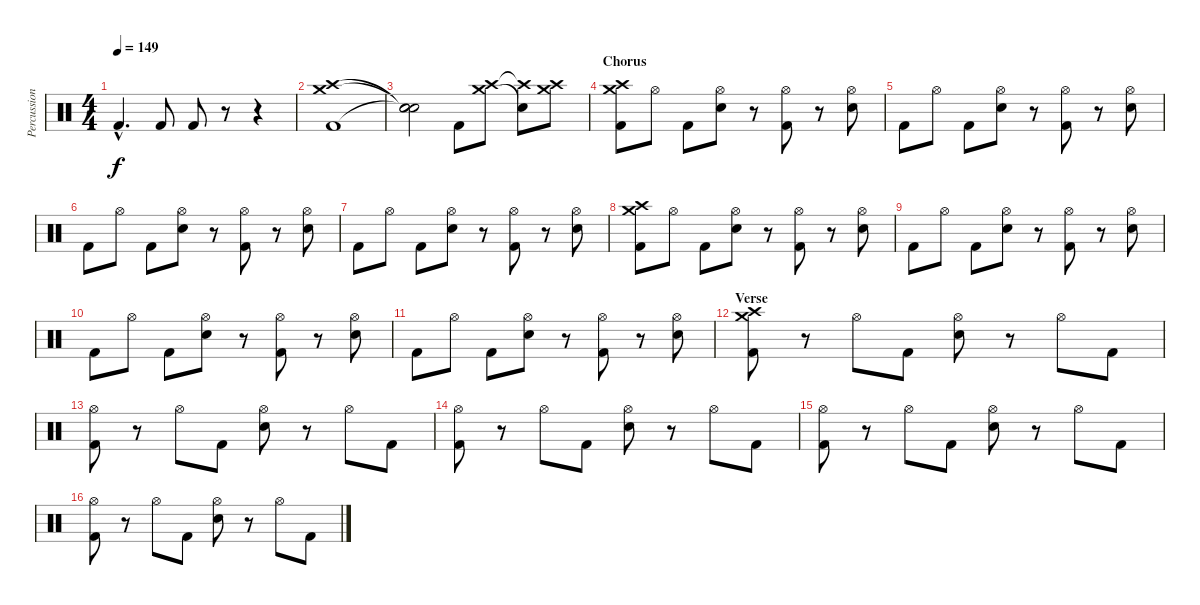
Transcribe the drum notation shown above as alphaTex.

\track ("Percussion" "Percussion") {instrument percussion}
\staff {score}
\articulation defaults
\ts (4 4)
\tempo 149
\clef neutral
\ks c "Kick (hit) 2"{hac}.4{d dy f} "Kick (hit) 2".8 "Kick (hit) 2".8
r.8 r.4 |
("Crash medium (hit)" "Crash high (hit)" "Kick (hit) 2").1 |
("Snare (hit)"{t} "Snare (hit)"{t} "Snare (hit)"{t}).2 "Kick (hit) 2".8 ("Crash high (hit)" "Crash medium (hit)").8 ("Crash high (hit)"{t} "Snare (hit)"{t}).8 ("Crash high (hit)" "Crash medium (hit)").8 |
\section ("" "Chorus")
("Crash medium (hit)" "Crash high (hit)" "Kick (hit) 2").8 "Hi-Hat (open)".8 "Kick (hit) 2".8 ("Hi-Hat (open)" "Snare (hit) 2").8 r.8 ("Hi-Hat (open)" "Kick (hit) 2").8 r.8 ("Hi-Hat (open)" "Snare (hit) 2").8 |
"Kick (hit) 2".8 "Hi-Hat (open)".8 "Kick (hit) 2".8 ("Hi-Hat (open)" "Snare (hit) 2").8 r.8 ("Hi-Hat (open)" "Kick (hit) 2").8 r.8 ("Hi-Hat (open)" "Snare (hit) 2").8 |
"Kick (hit) 2".8 "Hi-Hat (open)".8 "Kick (hit) 2".8 ("Hi-Hat (open)" "Snare (hit) 2").8 r.8 ("Hi-Hat (open)" "Kick (hit) 2").8 r.8 ("Hi-Hat (open)" "Snare (hit) 2").8 |
"Kick (hit) 2".8 "Hi-Hat (open)".8 "Kick (hit) 2".8 ("Hi-Hat (open)" "Snare (hit) 2").8 r.8 ("Hi-Hat (open)" "Kick (hit) 2").8 r.8 ("Hi-Hat (open)" "Snare (hit) 2").8 |
("Crash medium (hit)" "Crash high (hit)" "Kick (hit) 2").8 "Hi-Hat (open)".8 "Kick (hit) 2".8 ("Hi-Hat (open)" "Snare (hit) 2").8 r.8 ("Hi-Hat (open)" "Kick (hit) 2").8 r.8 ("Hi-Hat (open)" "Snare (hit) 2").8 |
"Kick (hit) 2".8 "Hi-Hat (open)".8 "Kick (hit) 2".8 ("Hi-Hat (open)" "Snare (hit) 2").8 r.8 ("Hi-Hat (open)" "Kick (hit) 2").8 r.8 ("Hi-Hat (open)" "Snare (hit) 2").8 |
"Kick (hit) 2".8 "Hi-Hat (open)".8 "Kick (hit) 2".8 ("Hi-Hat (open)" "Snare (hit) 2").8 r.8 ("Hi-Hat (open)" "Kick (hit) 2").8 r.8 ("Hi-Hat (open)" "Snare (hit) 2").8 |
"Kick (hit) 2".8 "Hi-Hat (open)".8 "Kick (hit) 2".8 ("Hi-Hat (open)" "Snare (hit) 2").8 r.8 ("Hi-Hat (open)" "Kick (hit) 2").8 r.8 ("Hi-Hat (open)" "Snare (hit) 2").8 |
\section ("" "Verse")
("Crash high (hit)" "Crash medium (hit)" "Kick (hit) 2").8 r.8 "Hi-Hat (open)".8 "Kick (hit) 2".8 ("Hi-Hat (open)" "Snare (hit) 2").8 r.8 "Hi-Hat (open)".8 "Kick (hit) 2".8 |
("Hi-Hat (open)" "Kick (hit) 2").8 r.8 "Hi-Hat (open)".8 "Kick (hit) 2".8 ("Hi-Hat (open)" "Snare (hit) 2").8 r.8 "Hi-Hat (open)".8 "Kick (hit) 2".8 |
("Hi-Hat (open)" "Kick (hit) 2").8 r.8 "Hi-Hat (open)".8 "Kick (hit) 2".8 ("Hi-Hat (open)" "Snare (hit) 2").8 r.8 "Hi-Hat (open)".8 "Kick (hit) 2".8 |
("Hi-Hat (open)" "Kick (hit) 2").8 r.8 "Hi-Hat (open)".8 "Kick (hit) 2".8 ("Hi-Hat (open)" "Snare (hit) 2").8 r.8 "Hi-Hat (open)".8 "Kick (hit) 2".8 |
("Hi-Hat (open)" "Kick (hit) 2").8 r.8 "Hi-Hat (open)".8 "Kick (hit) 2".8 ("Hi-Hat (open)" "Snare (hit) 2").8 r.8 "Hi-Hat (open)".8 "Kick (hit) 2".8
